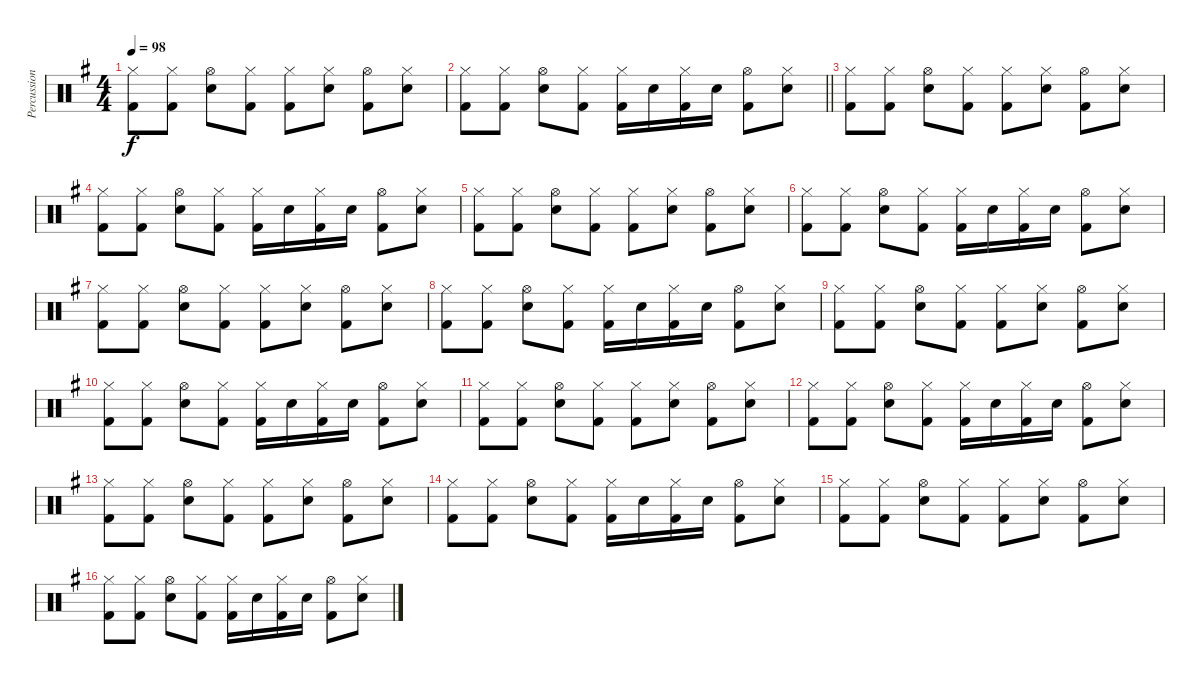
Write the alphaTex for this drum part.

\track ("Percussion" "Percussion") {instrument percussion}
\staff {score}
\articulation defaults
\ts (4 4)
\tempo 98
\clef neutral
\ks eminor
("Hi-Hat (closed)" "Kick (hit) 2").8{dy f} ("Hi-Hat (closed)" "Kick (hit) 2").8 ("Hi-Hat (open)" "Electric Snare (hit)").8 ("Hi-Hat (closed)" "Kick (hit) 2").8 ("Hi-Hat (closed)" "Kick (hit) 2").8 ("Hi-Hat (closed)" "Electric Snare (hit)").8 ("Hi-Hat (open)" "Kick (hit) 2").8 ("Hi-Hat (closed)" "Electric Snare (hit)").8 |
\barLineRight lightlight
("Hi-Hat (closed)" "Kick (hit) 2").8 ("Hi-Hat (closed)" "Kick (hit) 2").8 ("Hi-Hat (open)" "Electric Snare (hit)").8 ("Hi-Hat (closed)" "Kick (hit) 2").8 ("Hi-Hat (closed)" "Kick (hit) 2").16 "Electric Snare (hit)".16 ("Hi-Hat (closed)" "Kick (hit) 2").16 "Electric Snare (hit)".16 ("Hi-Hat (open)" "Kick (hit) 2").8 ("Hi-Hat (closed)" "Electric Snare (hit)").8 |
("Hi-Hat (closed)" "Kick (hit) 2").8 ("Hi-Hat (closed)" "Kick (hit) 2").8 ("Hi-Hat (open)" "Electric Snare (hit)").8 ("Hi-Hat (closed)" "Kick (hit) 2").8 ("Hi-Hat (closed)" "Kick (hit) 2").8 ("Hi-Hat (closed)" "Electric Snare (hit)").8 ("Hi-Hat (open)" "Kick (hit) 2").8 ("Hi-Hat (closed)" "Electric Snare (hit)").8 |
("Hi-Hat (closed)" "Kick (hit) 2").8 ("Hi-Hat (closed)" "Kick (hit) 2").8 ("Hi-Hat (open)" "Electric Snare (hit)").8 ("Hi-Hat (closed)" "Kick (hit) 2").8 ("Hi-Hat (closed)" "Kick (hit) 2").16 "Electric Snare (hit)".16 ("Hi-Hat (closed)" "Kick (hit) 2").16 "Electric Snare (hit)".16 ("Hi-Hat (open)" "Kick (hit) 2").8 ("Hi-Hat (closed)" "Electric Snare (hit)").8 |
("Hi-Hat (closed)" "Kick (hit) 2").8 ("Hi-Hat (closed)" "Kick (hit) 2").8 ("Hi-Hat (open)" "Electric Snare (hit)").8 ("Hi-Hat (closed)" "Kick (hit) 2").8 ("Hi-Hat (closed)" "Kick (hit) 2").8 ("Hi-Hat (closed)" "Electric Snare (hit)").8 ("Hi-Hat (open)" "Kick (hit) 2").8 ("Hi-Hat (closed)" "Electric Snare (hit)").8 |
("Hi-Hat (closed)" "Kick (hit) 2").8 ("Hi-Hat (closed)" "Kick (hit) 2").8 ("Hi-Hat (open)" "Electric Snare (hit)").8 ("Hi-Hat (closed)" "Kick (hit) 2").8 ("Hi-Hat (closed)" "Kick (hit) 2").16 "Electric Snare (hit)".16 ("Hi-Hat (closed)" "Kick (hit) 2").16 "Electric Snare (hit)".16 ("Hi-Hat (open)" "Kick (hit) 2").8 ("Hi-Hat (closed)" "Electric Snare (hit)").8 |
("Hi-Hat (closed)" "Kick (hit) 2").8 ("Hi-Hat (closed)" "Kick (hit) 2").8 ("Hi-Hat (open)" "Electric Snare (hit)").8 ("Hi-Hat (closed)" "Kick (hit) 2").8 ("Hi-Hat (closed)" "Kick (hit) 2").8 ("Hi-Hat (closed)" "Electric Snare (hit)").8 ("Hi-Hat (open)" "Kick (hit) 2").8 ("Hi-Hat (closed)" "Electric Snare (hit)").8 |
("Hi-Hat (closed)" "Kick (hit) 2").8 ("Hi-Hat (closed)" "Kick (hit) 2").8 ("Hi-Hat (open)" "Electric Snare (hit)").8 ("Hi-Hat (closed)" "Kick (hit) 2").8 ("Hi-Hat (closed)" "Kick (hit) 2").16 "Electric Snare (hit)".16 ("Hi-Hat (closed)" "Kick (hit) 2").16 "Electric Snare (hit)".16 ("Hi-Hat (open)" "Kick (hit) 2").8 ("Hi-Hat (closed)" "Electric Snare (hit)").8 |
("Hi-Hat (closed)" "Kick (hit) 2").8 ("Hi-Hat (closed)" "Kick (hit) 2").8 ("Hi-Hat (open)" "Electric Snare (hit)").8 ("Hi-Hat (closed)" "Kick (hit) 2").8 ("Hi-Hat (closed)" "Kick (hit) 2").8 ("Hi-Hat (closed)" "Electric Snare (hit)").8 ("Hi-Hat (open)" "Kick (hit) 2").8 ("Hi-Hat (closed)" "Electric Snare (hit)").8 |
("Hi-Hat (closed)" "Kick (hit) 2").8 ("Hi-Hat (closed)" "Kick (hit) 2").8 ("Hi-Hat (open)" "Electric Snare (hit)").8 ("Hi-Hat (closed)" "Kick (hit) 2").8 ("Hi-Hat (closed)" "Kick (hit) 2").16 "Electric Snare (hit)".16 ("Hi-Hat (closed)" "Kick (hit) 2").16 "Electric Snare (hit)".16 ("Hi-Hat (open)" "Kick (hit) 2").8 ("Hi-Hat (closed)" "Electric Snare (hit)").8 |
("Hi-Hat (closed)" "Kick (hit) 2").8 ("Hi-Hat (closed)" "Kick (hit) 2").8 ("Hi-Hat (open)" "Electric Snare (hit)").8 ("Hi-Hat (closed)" "Kick (hit) 2").8 ("Hi-Hat (closed)" "Kick (hit) 2").8 ("Hi-Hat (closed)" "Electric Snare (hit)").8 ("Hi-Hat (open)" "Kick (hit) 2").8 ("Hi-Hat (closed)" "Electric Snare (hit)").8 |
("Hi-Hat (closed)" "Kick (hit) 2").8 ("Hi-Hat (closed)" "Kick (hit) 2").8 ("Hi-Hat (open)" "Electric Snare (hit)").8 ("Hi-Hat (closed)" "Kick (hit) 2").8 ("Hi-Hat (closed)" "Kick (hit) 2").16 "Electric Snare (hit)".16 ("Hi-Hat (closed)" "Kick (hit) 2").16 "Electric Snare (hit)".16 ("Hi-Hat (open)" "Kick (hit) 2").8 ("Hi-Hat (closed)" "Electric Snare (hit)").8 |
("Hi-Hat (closed)" "Kick (hit) 2").8 ("Hi-Hat (closed)" "Kick (hit) 2").8 ("Hi-Hat (open)" "Electric Snare (hit)").8 ("Hi-Hat (closed)" "Kick (hit) 2").8 ("Hi-Hat (closed)" "Kick (hit) 2").8 ("Hi-Hat (closed)" "Electric Snare (hit)").8 ("Hi-Hat (open)" "Kick (hit) 2").8 ("Hi-Hat (closed)" "Electric Snare (hit)").8 |
("Hi-Hat (closed)" "Kick (hit) 2").8 ("Hi-Hat (closed)" "Kick (hit) 2").8 ("Hi-Hat (open)" "Electric Snare (hit)").8 ("Hi-Hat (closed)" "Kick (hit) 2").8 ("Hi-Hat (closed)" "Kick (hit) 2").16 "Electric Snare (hit)".16 ("Hi-Hat (closed)" "Kick (hit) 2").16 "Electric Snare (hit)".16 ("Hi-Hat (open)" "Kick (hit) 2").8 ("Hi-Hat (closed)" "Electric Snare (hit)").8 |
("Hi-Hat (closed)" "Kick (hit) 2").8 ("Hi-Hat (closed)" "Kick (hit) 2").8 ("Hi-Hat (open)" "Electric Snare (hit)").8 ("Hi-Hat (closed)" "Kick (hit) 2").8 ("Hi-Hat (closed)" "Kick (hit) 2").8 ("Hi-Hat (closed)" "Electric Snare (hit)").8 ("Hi-Hat (open)" "Kick (hit) 2").8 ("Hi-Hat (closed)" "Electric Snare (hit)").8 |
("Hi-Hat (closed)" "Kick (hit) 2").8 ("Hi-Hat (closed)" "Kick (hit) 2").8 ("Hi-Hat (open)" "Electric Snare (hit)").8 ("Hi-Hat (closed)" "Kick (hit) 2").8 ("Hi-Hat (closed)" "Kick (hit) 2").16 "Electric Snare (hit)".16 ("Hi-Hat (closed)" "Kick (hit) 2").16 "Electric Snare (hit)".16 ("Hi-Hat (open)" "Kick (hit) 2").8 ("Hi-Hat (closed)" "Electric Snare (hit)").8
